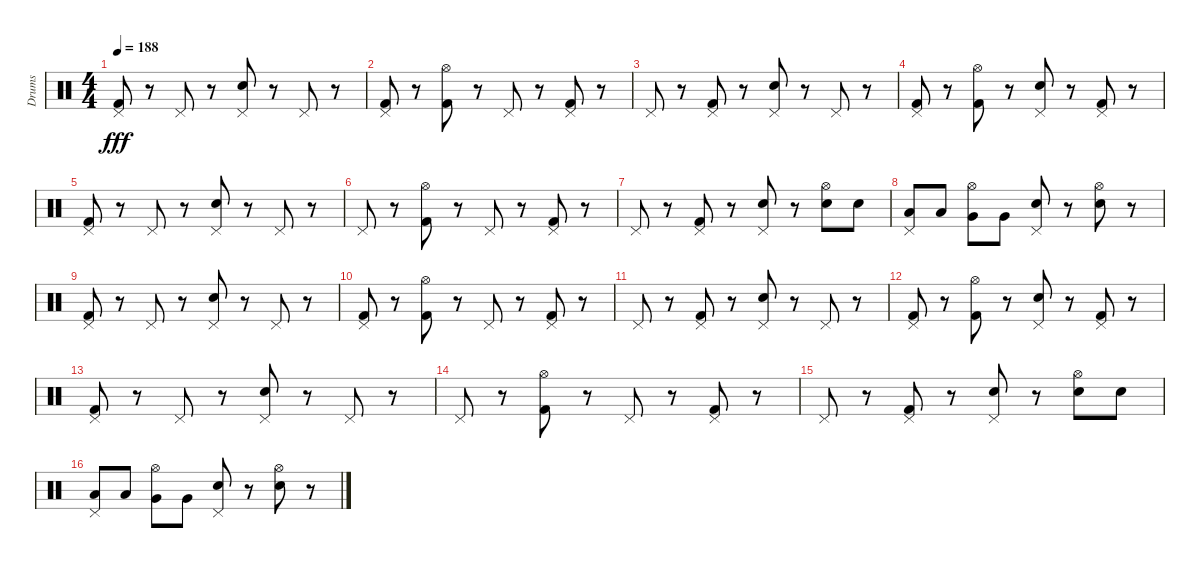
\track ("Drums" "Drums") {instrument percussion}
\staff {score}
\articulation defaults
\ts (4 4)
\tempo 188
\clef neutral
\ks c
("Pedal Hi-Hat (hit)" "Kick (hit) 2").8{dy fff} r.8 "Pedal Hi-Hat (hit)".8 r.8 ("Pedal Hi-Hat (hit)" "Electric Snare (hit)").8 r.8 "Pedal Hi-Hat (hit)".8 r.8 |
("Pedal Hi-Hat (hit)" "Kick (hit) 2").8 r.8 ("Hi-Hat (open)" "Kick (hit) 2").8 r.8 "Pedal Hi-Hat (hit)".8 r.8 ("Pedal Hi-Hat (hit)" "Kick (hit) 2").8 r.8 |
"Pedal Hi-Hat (hit)".8 r.8 ("Pedal Hi-Hat (hit)" "Kick (hit) 2").8 r.8 ("Pedal Hi-Hat (hit)" "Electric Snare (hit)").8 r.8 "Pedal Hi-Hat (hit)".8 r.8 |
("Pedal Hi-Hat (hit)" "Kick (hit) 2").8 r.8 ("Hi-Hat (open)" "Kick (hit) 2").8 r.8 ("Pedal Hi-Hat (hit)" "Electric Snare (hit)").8 r.8 ("Pedal Hi-Hat (hit)" "Kick (hit) 2").8 r.8 |
("Pedal Hi-Hat (hit)" "Kick (hit) 2").8 r.8 "Pedal Hi-Hat (hit)".8 r.8 ("Pedal Hi-Hat (hit)" "Electric Snare (hit)").8 r.8 "Pedal Hi-Hat (hit)".8 r.8 |
"Pedal Hi-Hat (hit)".8 r.8 ("Hi-Hat (open)" "Kick (hit) 2").8 r.8 "Pedal Hi-Hat (hit)".8 r.8 ("Pedal Hi-Hat (hit)" "Kick (hit) 2").8 r.8 |
"Pedal Hi-Hat (hit)".8 r.8 ("Pedal Hi-Hat (hit)" "Kick (hit) 2").8 r.8 ("Pedal Hi-Hat (hit)" "Electric Snare (hit)").8 r.8 ("Hi-Hat (open)" "Electric Snare (hit)").8 "Electric Snare (hit)".8 |
("Pedal Hi-Hat (hit)" "Low Tom (hit)").8 "Low Tom (hit)".8 ("Hi-Hat (open)" "Very Low Tom (hit)").8 "Very Low Tom (hit)".8 ("Pedal Hi-Hat (hit)" "Electric Snare (hit)").8 r.8 ("Hi-Hat (open)" "Electric Snare (hit)").8 r.8 |
("Pedal Hi-Hat (hit)" "Kick (hit) 2").8 r.8 "Pedal Hi-Hat (hit)".8 r.8 ("Pedal Hi-Hat (hit)" "Electric Snare (hit)").8 r.8 "Pedal Hi-Hat (hit)".8 r.8 |
("Pedal Hi-Hat (hit)" "Kick (hit) 2").8 r.8 ("Hi-Hat (open)" "Kick (hit) 2").8 r.8 "Pedal Hi-Hat (hit)".8 r.8 ("Pedal Hi-Hat (hit)" "Kick (hit) 2").8 r.8 |
"Pedal Hi-Hat (hit)".8 r.8 ("Pedal Hi-Hat (hit)" "Kick (hit) 2").8 r.8 ("Pedal Hi-Hat (hit)" "Electric Snare (hit)").8 r.8 "Pedal Hi-Hat (hit)".8 r.8 |
("Pedal Hi-Hat (hit)" "Kick (hit) 2").8 r.8 ("Hi-Hat (open)" "Kick (hit) 2").8 r.8 ("Pedal Hi-Hat (hit)" "Electric Snare (hit)").8 r.8 ("Pedal Hi-Hat (hit)" "Kick (hit) 2").8 r.8 |
("Pedal Hi-Hat (hit)" "Kick (hit) 2").8 r.8 "Pedal Hi-Hat (hit)".8 r.8 ("Pedal Hi-Hat (hit)" "Electric Snare (hit)").8 r.8 "Pedal Hi-Hat (hit)".8 r.8 |
"Pedal Hi-Hat (hit)".8 r.8 ("Hi-Hat (open)" "Kick (hit) 2").8 r.8 "Pedal Hi-Hat (hit)".8 r.8 ("Pedal Hi-Hat (hit)" "Kick (hit) 2").8 r.8 |
"Pedal Hi-Hat (hit)".8 r.8 ("Pedal Hi-Hat (hit)" "Kick (hit) 2").8 r.8 ("Pedal Hi-Hat (hit)" "Electric Snare (hit)").8 r.8 ("Hi-Hat (open)" "Electric Snare (hit)").8 "Electric Snare (hit)".8 |
("Pedal Hi-Hat (hit)" "Low Tom (hit)").8 "Low Tom (hit)".8 ("Hi-Hat (open)" "Very Low Tom (hit)").8 "Very Low Tom (hit)".8 ("Pedal Hi-Hat (hit)" "Electric Snare (hit)").8 r.8 ("Hi-Hat (open)" "Electric Snare (hit)").8 r.8
